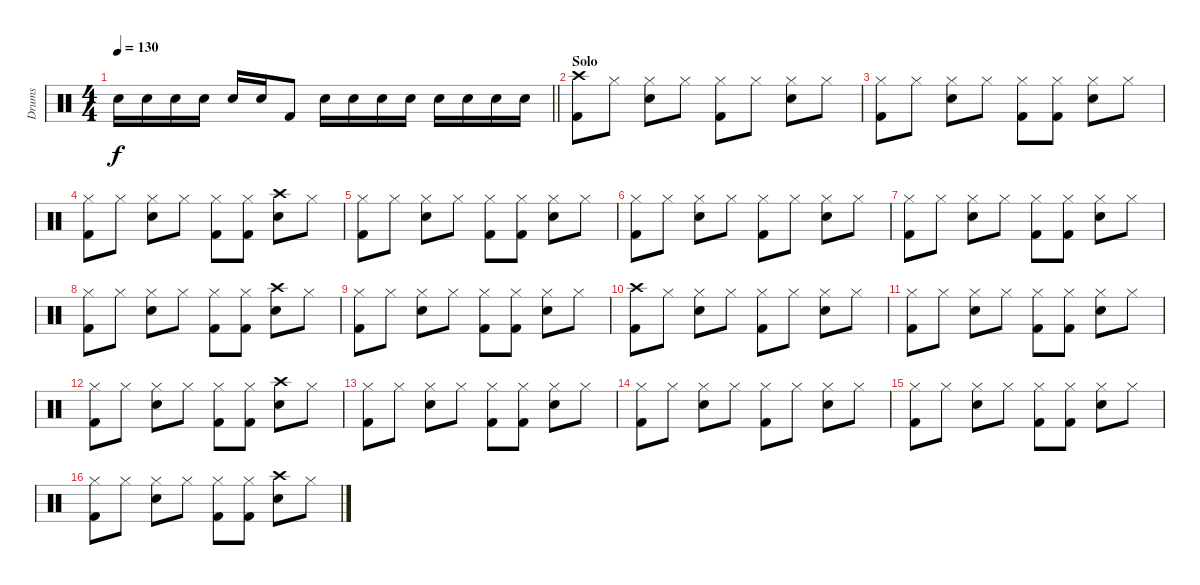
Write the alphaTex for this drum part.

\track ("Drums" "Drums") {instrument percussion}
\staff {score}
\articulation defaults
\ts (4 4)
\tempo 130
\clef neutral
\barLineRight lightlight
\ks c "Snare (hit) 2".16{dy f} "Snare (hit) 2".16 "Snare (hit) 2".16 "Snare (hit) 2".16 "Snare (hit) 2".16 "Snare (hit) 2".16 "Kick (hit) 2".8 "Snare (hit) 2".16 "Snare (hit) 2".16 "Snare (hit) 2".16 "Snare (hit) 2".16 "Snare (hit) 2".16 "Snare (hit) 2".16 "Snare (hit) 2".16 "Snare (hit) 2".16
|
\section ("" "Solo")
("Crash high (hit)" "Kick (hit) 2").8 "Hi-Hat (closed)".8 ("Hi-Hat (closed)" "Snare (hit) 2").8 "Hi-Hat (closed)".8 ("Hi-Hat (closed)" "Kick (hit) 2").8 "Hi-Hat (closed)".8 ("Hi-Hat (closed)" "Snare (hit) 2").8 "Hi-Hat (closed)".8 |
("Hi-Hat (closed)" "Kick (hit) 2").8 "Hi-Hat (closed)".8 ("Hi-Hat (closed)" "Snare (hit) 2").8 "Hi-Hat (closed)".8 ("Hi-Hat (closed)" "Kick (hit) 2").8 ("Hi-Hat (closed)" "Kick (hit) 2").8 ("Hi-Hat (closed)" "Snare (hit) 2").8 "Hi-Hat (closed)".8 |
("Hi-Hat (closed)" "Kick (hit) 2").8 "Hi-Hat (closed)".8 ("Hi-Hat (closed)" "Snare (hit) 2").8 "Hi-Hat (closed)".8 ("Hi-Hat (closed)" "Kick (hit) 2").8 ("Hi-Hat (closed)" "Kick (hit) 2").8 ("Crash high (hit)" "Snare (hit) 2").8 "Hi-Hat (closed)".8 |
("Hi-Hat (closed)" "Kick (hit) 2").8 "Hi-Hat (closed)".8 ("Hi-Hat (closed)" "Snare (hit) 2").8 "Hi-Hat (closed)".8 ("Hi-Hat (closed)" "Kick (hit) 2").8 ("Hi-Hat (closed)" "Kick (hit) 2").8 ("Hi-Hat (closed)" "Snare (hit) 2").8 "Hi-Hat (closed)".8 |
("Hi-Hat (closed)" "Kick (hit) 2").8 "Hi-Hat (closed)".8 ("Hi-Hat (closed)" "Snare (hit) 2").8 "Hi-Hat (closed)".8 ("Hi-Hat (closed)" "Kick (hit) 2").8 "Hi-Hat (closed)".8 ("Hi-Hat (closed)" "Snare (hit) 2").8 "Hi-Hat (closed)".8 |
("Hi-Hat (closed)" "Kick (hit) 2").8 "Hi-Hat (closed)".8 ("Hi-Hat (closed)" "Snare (hit) 2").8 "Hi-Hat (closed)".8 ("Hi-Hat (closed)" "Kick (hit) 2").8 ("Hi-Hat (closed)" "Kick (hit) 2").8 ("Hi-Hat (closed)" "Snare (hit) 2").8 "Hi-Hat (closed)".8 |
("Hi-Hat (closed)" "Kick (hit) 2").8 "Hi-Hat (closed)".8 ("Hi-Hat (closed)" "Snare (hit) 2").8 "Hi-Hat (closed)".8 ("Hi-Hat (closed)" "Kick (hit) 2").8 ("Hi-Hat (closed)" "Kick (hit) 2").8 ("Crash high (hit)" "Snare (hit) 2").8 "Hi-Hat (closed)".8 |
("Hi-Hat (closed)" "Kick (hit) 2").8 "Hi-Hat (closed)".8 ("Hi-Hat (closed)" "Snare (hit) 2").8 "Hi-Hat (closed)".8 ("Hi-Hat (closed)" "Kick (hit) 2").8 ("Hi-Hat (closed)" "Kick (hit) 2").8 ("Hi-Hat (closed)" "Snare (hit) 2").8 "Hi-Hat (closed)".8 |
("Crash high (hit)" "Kick (hit) 2").8 "Hi-Hat (closed)".8 ("Hi-Hat (closed)" "Snare (hit) 2").8 "Hi-Hat (closed)".8 ("Hi-Hat (closed)" "Kick (hit) 2").8 "Hi-Hat (closed)".8 ("Hi-Hat (closed)" "Snare (hit) 2").8 "Hi-Hat (closed)".8 |
("Hi-Hat (closed)" "Kick (hit) 2").8 "Hi-Hat (closed)".8 ("Hi-Hat (closed)" "Snare (hit) 2").8 "Hi-Hat (closed)".8 ("Hi-Hat (closed)" "Kick (hit) 2").8 ("Hi-Hat (closed)" "Kick (hit) 2").8 ("Hi-Hat (closed)" "Snare (hit) 2").8 "Hi-Hat (closed)".8 |
("Hi-Hat (closed)" "Kick (hit) 2").8 "Hi-Hat (closed)".8 ("Hi-Hat (closed)" "Snare (hit) 2").8 "Hi-Hat (closed)".8 ("Hi-Hat (closed)" "Kick (hit) 2").8 ("Hi-Hat (closed)" "Kick (hit) 2").8 ("Crash high (hit)" "Snare (hit) 2").8 "Hi-Hat (closed)".8 |
("Hi-Hat (closed)" "Kick (hit) 2").8 "Hi-Hat (closed)".8 ("Hi-Hat (closed)" "Snare (hit) 2").8 "Hi-Hat (closed)".8 ("Hi-Hat (closed)" "Kick (hit) 2").8 ("Hi-Hat (closed)" "Kick (hit) 2").8 ("Hi-Hat (closed)" "Snare (hit) 2").8 "Hi-Hat (closed)".8 |
("Hi-Hat (closed)" "Kick (hit) 2").8 "Hi-Hat (closed)".8 ("Hi-Hat (closed)" "Snare (hit) 2").8 "Hi-Hat (closed)".8 ("Hi-Hat (closed)" "Kick (hit) 2").8 "Hi-Hat (closed)".8 ("Hi-Hat (closed)" "Snare (hit) 2").8 "Hi-Hat (closed)".8 |
("Hi-Hat (closed)" "Kick (hit) 2").8 "Hi-Hat (closed)".8 ("Hi-Hat (closed)" "Snare (hit) 2").8 "Hi-Hat (closed)".8 ("Hi-Hat (closed)" "Kick (hit) 2").8 ("Hi-Hat (closed)" "Kick (hit) 2").8 ("Hi-Hat (closed)" "Snare (hit) 2").8 "Hi-Hat (closed)".8 |
("Hi-Hat (closed)" "Kick (hit) 2").8 "Hi-Hat (closed)".8 ("Hi-Hat (closed)" "Snare (hit) 2").8 "Hi-Hat (closed)".8 ("Hi-Hat (closed)" "Kick (hit) 2").8 ("Hi-Hat (closed)" "Kick (hit) 2").8 ("Crash high (hit)" "Snare (hit) 2").8 "Hi-Hat (closed)".8
